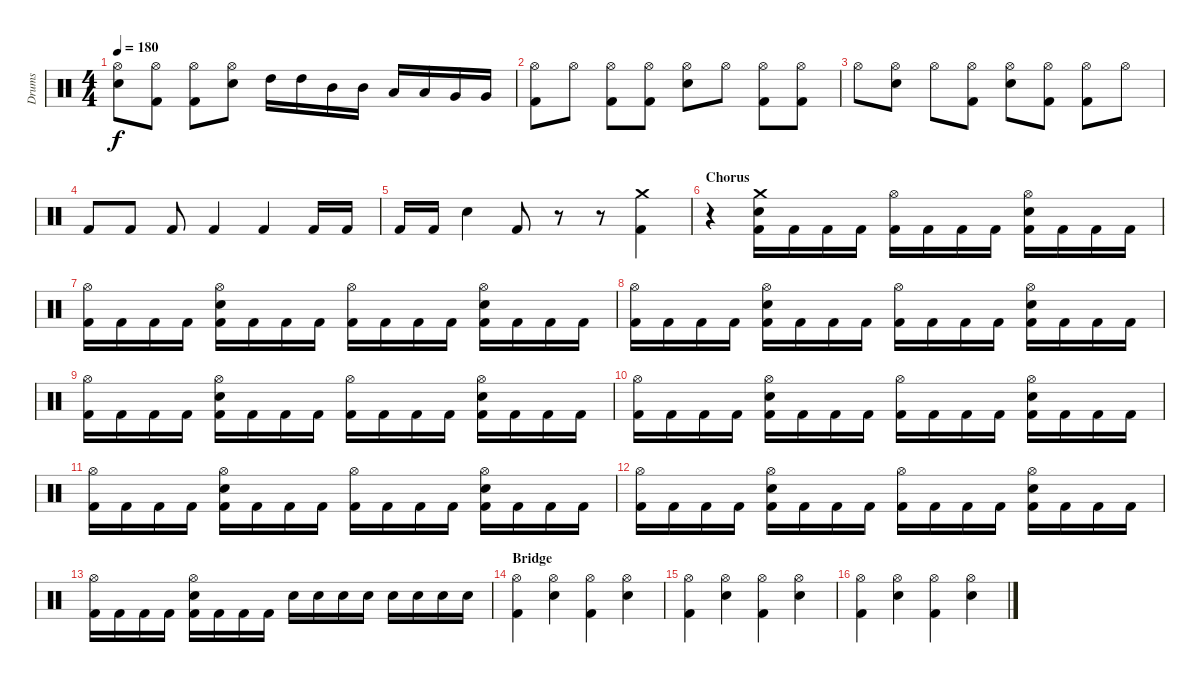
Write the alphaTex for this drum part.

\track ("Drums" "Drums") {instrument percussion}
\staff {score}
\articulation defaults
\ts (4 4)
\tempo 180
\clef neutral
\ks c
("Hi-Hat (open)" "Electric Snare (hit)").8{dy f} ("Hi-Hat (open)" "Kick (hit) 2").8 ("Hi-Hat (open)" "Kick (hit) 2").8 ("Hi-Hat (open)" "Electric Snare (hit)").8 "High Tom (hit)".16 "High Tom (hit)".16 "Mid Tom (hit)".16 "Mid Tom (hit)".16 "Low Tom (hit)".16 "Low Tom (hit)".16 "Very Low Tom (hit)".16 "Very Low Tom (hit)".16 |
("Hi-Hat (open)" "Kick (hit) 2").8 "Hi-Hat (open)".8 ("Hi-Hat (open)" "Kick (hit) 2").8 ("Hi-Hat (open)" "Kick (hit) 2").8 ("Hi-Hat (open)" "Electric Snare (hit)").8 "Hi-Hat (open)".8 ("Hi-Hat (open)" "Kick (hit) 2").8 ("Hi-Hat (open)" "Kick (hit) 2").8 |
"Hi-Hat (open)".8 ("Hi-Hat (open)" "Electric Snare (hit)").8 "Hi-Hat (open)".8 ("Hi-Hat (open)" "Kick (hit) 2").8 ("Hi-Hat (open)" "Electric Snare (hit)").8 ("Hi-Hat (open)" "Kick (hit) 2").8 ("Hi-Hat (open)" "Kick (hit) 2").8 "Hi-Hat (open)".8 |
"Kick (hit) 2".8 "Kick (hit) 2".8 "Kick (hit) 2".8 "Kick (hit) 2".4 "Kick (hit) 2".4 "Kick (hit) 2".16 "Kick (hit) 2".16 |
"Kick (hit) 2".16 "Kick (hit) 2".16 "Electric Snare (hit)".4 "Kick (hit) 2".8 r.8 r.8 ("Crash medium (hit)" "Kick (hit) 2").4 |
\section ("" "Chorus")
r.4 ("Crash medium (hit)" "Electric Snare (hit)" "Kick (hit) 2").16 "Kick (hit) 2".16 "Kick (hit) 2".16 "Kick (hit) 2".16 ("Hi-Hat (open)" "Kick (hit) 2").16 "Kick (hit) 2".16 "Kick (hit) 2".16 "Kick (hit) 2".16 ("Hi-Hat (open)" "Electric Snare (hit)" "Kick (hit) 2").16 "Kick (hit) 2".16 "Kick (hit) 2".16 "Kick (hit) 2".16 |
("Hi-Hat (open)" "Kick (hit) 2").16 "Kick (hit) 2".16 "Kick (hit) 2".16 "Kick (hit) 2".16 ("Hi-Hat (open)" "Electric Snare (hit)" "Kick (hit) 2").16 "Kick (hit) 2".16 "Kick (hit) 2".16 "Kick (hit) 2".16 ("Hi-Hat (open)" "Kick (hit) 2").16 "Kick (hit) 2".16 "Kick (hit) 2".16 "Kick (hit) 2".16 ("Hi-Hat (open)" "Electric Snare (hit)" "Kick (hit) 2").16 "Kick (hit) 2".16 "Kick (hit) 2".16 "Kick (hit) 2".16 |
("Hi-Hat (open)" "Kick (hit) 2").16 "Kick (hit) 2".16 "Kick (hit) 2".16 "Kick (hit) 2".16 ("Hi-Hat (open)" "Electric Snare (hit)" "Kick (hit) 2").16 "Kick (hit) 2".16 "Kick (hit) 2".16 "Kick (hit) 2".16 ("Hi-Hat (open)" "Kick (hit) 2").16 "Kick (hit) 2".16 "Kick (hit) 2".16 "Kick (hit) 2".16 ("Hi-Hat (open)" "Electric Snare (hit)" "Kick (hit) 2").16 "Kick (hit) 2".16 "Kick (hit) 2".16 "Kick (hit) 2".16 |
("Hi-Hat (open)" "Kick (hit) 2").16 "Kick (hit) 2".16 "Kick (hit) 2".16 "Kick (hit) 2".16 ("Hi-Hat (open)" "Electric Snare (hit)" "Kick (hit) 2").16 "Kick (hit) 2".16 "Kick (hit) 2".16 "Kick (hit) 2".16 ("Hi-Hat (open)" "Kick (hit) 2").16 "Kick (hit) 2".16 "Kick (hit) 2".16 "Kick (hit) 2".16 ("Hi-Hat (open)" "Electric Snare (hit)" "Kick (hit) 2").16 "Kick (hit) 2".16 "Kick (hit) 2".16 "Kick (hit) 2".16 |
("Hi-Hat (open)" "Kick (hit) 2").16 "Kick (hit) 2".16 "Kick (hit) 2".16 "Kick (hit) 2".16 ("Hi-Hat (open)" "Electric Snare (hit)" "Kick (hit) 2").16 "Kick (hit) 2".16 "Kick (hit) 2".16 "Kick (hit) 2".16 ("Hi-Hat (open)" "Kick (hit) 2").16 "Kick (hit) 2".16 "Kick (hit) 2".16 "Kick (hit) 2".16 ("Hi-Hat (open)" "Electric Snare (hit)" "Kick (hit) 2").16 "Kick (hit) 2".16 "Kick (hit) 2".16 "Kick (hit) 2".16 |
("Hi-Hat (open)" "Kick (hit) 2").16 "Kick (hit) 2".16 "Kick (hit) 2".16 "Kick (hit) 2".16 ("Hi-Hat (open)" "Electric Snare (hit)" "Kick (hit) 2").16 "Kick (hit) 2".16 "Kick (hit) 2".16 "Kick (hit) 2".16 ("Hi-Hat (open)" "Kick (hit) 2").16 "Kick (hit) 2".16 "Kick (hit) 2".16 "Kick (hit) 2".16 ("Hi-Hat (open)" "Electric Snare (hit)" "Kick (hit) 2").16 "Kick (hit) 2".16 "Kick (hit) 2".16 "Kick (hit) 2".16 |
("Hi-Hat (open)" "Kick (hit) 2").16 "Kick (hit) 2".16 "Kick (hit) 2".16 "Kick (hit) 2".16 ("Hi-Hat (open)" "Electric Snare (hit)" "Kick (hit) 2").16 "Kick (hit) 2".16 "Kick (hit) 2".16 "Kick (hit) 2".16 ("Hi-Hat (open)" "Kick (hit) 2").16 "Kick (hit) 2".16 "Kick (hit) 2".16 "Kick (hit) 2".16 ("Hi-Hat (open)" "Electric Snare (hit)" "Kick (hit) 2").16 "Kick (hit) 2".16 "Kick (hit) 2".16 "Kick (hit) 2".16 |
("Hi-Hat (open)" "Kick (hit) 2").16 "Kick (hit) 2".16 "Kick (hit) 2".16 "Kick (hit) 2".16 ("Hi-Hat (open)" "Electric Snare (hit)" "Kick (hit) 2").16 "Kick (hit) 2".16 "Kick (hit) 2".16 "Kick (hit) 2".16 "Electric Snare (hit)".16 "Electric Snare (hit)".16 "Electric Snare (hit)".16 "Electric Snare (hit)".16 "Electric Snare (hit)".16 "Electric Snare (hit)".16 "Electric Snare (hit)".16 "Electric Snare (hit)".16 |
\section ("" "Bridge")
("Hi-Hat (open)" "Kick (hit) 2").4 ("Hi-Hat (open)" "Electric Snare (hit)").4 ("Hi-Hat (open)" "Kick (hit) 2").4 ("Hi-Hat (open)" "Electric Snare (hit)").4 |
("Hi-Hat (open)" "Kick (hit) 2").4 ("Hi-Hat (open)" "Electric Snare (hit)").4 ("Hi-Hat (open)" "Kick (hit) 2").4 ("Hi-Hat (open)" "Electric Snare (hit)").4 |
("Hi-Hat (open)" "Kick (hit) 2").4 ("Hi-Hat (open)" "Electric Snare (hit)").4 ("Hi-Hat (open)" "Kick (hit) 2").4 ("Hi-Hat (open)" "Electric Snare (hit)").4
